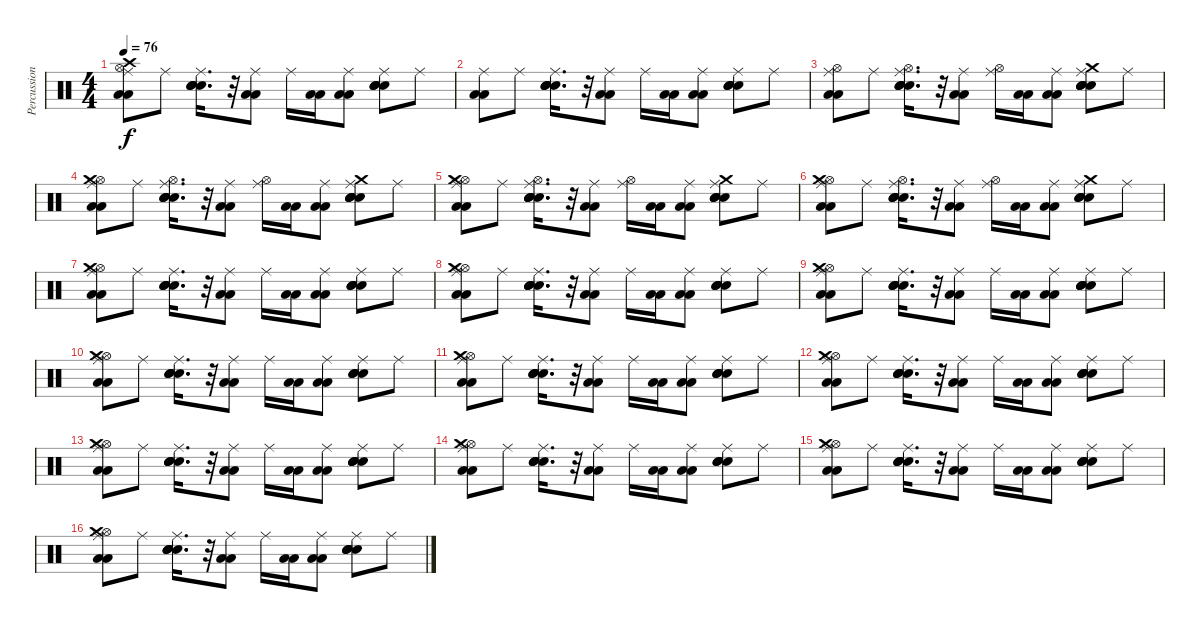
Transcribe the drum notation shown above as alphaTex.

\track ("Percussion" "Percussion") {instrument percussion}
\staff {score}
\articulation defaults
\ts (4 4)
\tempo 76
\clef neutral
\ks c
("Hi-Hat (open)" "Low Floor Tom (hit)" "Low Floor Tom (hit)" "Ride (middle)" "Crash high (hit)").8{dy f volume 8} "Ride (middle)".8 ("Electric Snare (hit)" "Electric Snare (hit)" "Snare (hit) 2" "Ride (middle)" "Snare (hit) 2").16{d} r.32 ("Low Floor Tom (hit)" "Low Floor Tom (hit)" "Ride (middle)").8 "Ride (middle)".16 ("Low Floor Tom (hit)" "Low Floor Tom (hit)").16 ("Low Floor Tom (hit)" "Low Floor Tom (hit)" "Ride (middle)").8 ("Electric Snare (hit)" "Electric Snare (hit)" "Snare (hit) 2" "Ride (middle)" "Snare (hit) 2").8 "Ride (middle)".8 |
("Low Floor Tom (hit)" "Low Floor Tom (hit)" "Ride (middle)").8 "Ride (middle)".8 ("Electric Snare (hit)" "Electric Snare (hit)" "Snare (hit) 2" "Ride (middle)" "Snare (hit) 2").16{d} r.32 ("Low Floor Tom (hit)" "Low Floor Tom (hit)" "Ride (middle)").8 "Ride (middle)".16 ("Low Floor Tom (hit)" "Low Floor Tom (hit)").16 ("Low Floor Tom (hit)" "Low Floor Tom (hit)" "Ride (middle)").8 ("Electric Snare (hit)" "Electric Snare (hit)" "Snare (hit) 2" "Ride (middle)" "Snare (hit) 2").8 "Ride (middle)".8 |
("Hi-Hat (open)" "Low Floor Tom (hit)" "Low Floor Tom (hit)" "Ride (middle)").8 "Ride (middle)".8 ("Electric Snare (hit)" "Electric Snare (hit)" "Snare (hit) 2" "Ride (middle)" "Snare (hit) 2" "Hi-Hat (open)").16{d} r.32 ("Low Floor Tom (hit)" "Low Floor Tom (hit)" "Ride (middle)").8 ("Hi-Hat (open)" "Ride (middle)").16 ("Low Floor Tom (hit)" "Low Floor Tom (hit)").16 ("Low Floor Tom (hit)" "Low Floor Tom (hit)" "Ride (middle)").8 ("Electric Snare (hit)" "Electric Snare (hit)" "Snare (hit) 2" "Ride (middle)" "Snare (hit) 2" "Crash medium (hit)").8 "Ride (middle)".8 |
("Hi-Hat (open)" "Low Floor Tom (hit)" "Low Floor Tom (hit)" "Ride (middle)" "Crash medium (hit)").8 "Ride (middle)".8 ("Electric Snare (hit)" "Electric Snare (hit)" "Snare (hit) 2" "Ride (middle)" "Snare (hit) 2" "Hi-Hat (open)").16{d} r.32 ("Low Floor Tom (hit)" "Low Floor Tom (hit)" "Ride (middle)").8 ("Hi-Hat (open)" "Ride (middle)").16 ("Low Floor Tom (hit)" "Low Floor Tom (hit)").16 ("Low Floor Tom (hit)" "Low Floor Tom (hit)" "Ride (middle)").8 ("Electric Snare (hit)" "Electric Snare (hit)" "Snare (hit) 2" "Ride (middle)" "Snare (hit) 2" "Crash medium (hit)").8 "Ride (middle)".8 |
("Hi-Hat (open)" "Low Floor Tom (hit)" "Low Floor Tom (hit)" "Ride (middle)" "Crash medium (hit)").8 "Ride (middle)".8 ("Electric Snare (hit)" "Electric Snare (hit)" "Snare (hit) 2" "Ride (middle)" "Snare (hit) 2" "Hi-Hat (open)").16{d} r.32 ("Low Floor Tom (hit)" "Low Floor Tom (hit)" "Ride (middle)").8 ("Hi-Hat (open)" "Ride (middle)").16 ("Low Floor Tom (hit)" "Low Floor Tom (hit)").16 ("Low Floor Tom (hit)" "Low Floor Tom (hit)" "Ride (middle)").8 ("Electric Snare (hit)" "Electric Snare (hit)" "Snare (hit) 2" "Ride (middle)" "Snare (hit) 2" "Crash medium (hit)").8 "Ride (middle)".8 |
("Hi-Hat (open)" "Low Floor Tom (hit)" "Low Floor Tom (hit)" "Ride (middle)" "Crash medium (hit)").8 "Ride (middle)".8 ("Electric Snare (hit)" "Electric Snare (hit)" "Snare (hit) 2" "Ride (middle)" "Snare (hit) 2" "Hi-Hat (open)").16{d} r.32 ("Low Floor Tom (hit)" "Low Floor Tom (hit)" "Ride (middle)").8 ("Hi-Hat (open)" "Ride (middle)").16 ("Low Floor Tom (hit)" "Low Floor Tom (hit)").16 ("Low Floor Tom (hit)" "Low Floor Tom (hit)" "Ride (middle)").8 ("Electric Snare (hit)" "Electric Snare (hit)" "Snare (hit) 2" "Ride (middle)" "Snare (hit) 2" "Crash medium (hit)").8 "Ride (middle)".8 |
("Hi-Hat (open)" "Low Floor Tom (hit)" "Low Floor Tom (hit)" "Ride (middle)" "Crash medium (hit)").8 "Ride (middle)".8 ("Electric Snare (hit)" "Electric Snare (hit)" "Snare (hit) 2" "Ride (middle)" "Snare (hit) 2").16{d} r.32 ("Low Floor Tom (hit)" "Low Floor Tom (hit)" "Ride (middle)").8 "Ride (middle)".16 ("Low Floor Tom (hit)" "Low Floor Tom (hit)").16 ("Low Floor Tom (hit)" "Low Floor Tom (hit)" "Ride (middle)").8 ("Electric Snare (hit)" "Electric Snare (hit)" "Snare (hit) 2" "Ride (middle)" "Snare (hit) 2").8 "Ride (middle)".8 |
("Hi-Hat (open)" "Low Floor Tom (hit)" "Low Floor Tom (hit)" "Ride (middle)" "Crash medium (hit)").8 "Ride (middle)".8 ("Electric Snare (hit)" "Electric Snare (hit)" "Snare (hit) 2" "Ride (middle)" "Snare (hit) 2").16{d} r.32 ("Low Floor Tom (hit)" "Low Floor Tom (hit)" "Ride (middle)").8 "Ride (middle)".16 ("Low Floor Tom (hit)" "Low Floor Tom (hit)").16 ("Low Floor Tom (hit)" "Low Floor Tom (hit)" "Ride (middle)").8 ("Electric Snare (hit)" "Electric Snare (hit)" "Snare (hit) 2" "Ride (middle)" "Snare (hit) 2").8 "Ride (middle)".8 |
("Hi-Hat (open)" "Low Floor Tom (hit)" "Low Floor Tom (hit)" "Ride (middle)" "Crash medium (hit)").8 "Ride (middle)".8 ("Electric Snare (hit)" "Electric Snare (hit)" "Snare (hit) 2" "Ride (middle)" "Snare (hit) 2").16{d} r.32 ("Low Floor Tom (hit)" "Low Floor Tom (hit)" "Ride (middle)").8 "Ride (middle)".16 ("Low Floor Tom (hit)" "Low Floor Tom (hit)").16 ("Low Floor Tom (hit)" "Low Floor Tom (hit)" "Ride (middle)").8 ("Electric Snare (hit)" "Electric Snare (hit)" "Snare (hit) 2" "Ride (middle)" "Snare (hit) 2").8 "Ride (middle)".8 |
("Hi-Hat (open)" "Low Floor Tom (hit)" "Low Floor Tom (hit)" "Ride (middle)" "Crash medium (hit)").8 "Ride (middle)".8 ("Electric Snare (hit)" "Electric Snare (hit)" "Snare (hit) 2" "Ride (middle)" "Snare (hit) 2").16{d} r.32 ("Low Floor Tom (hit)" "Low Floor Tom (hit)" "Ride (middle)").8 "Ride (middle)".16 ("Low Floor Tom (hit)" "Low Floor Tom (hit)").16 ("Low Floor Tom (hit)" "Low Floor Tom (hit)" "Ride (middle)").8 ("Electric Snare (hit)" "Electric Snare (hit)" "Snare (hit) 2" "Ride (middle)" "Snare (hit) 2").8 "Ride (middle)".8 |
("Hi-Hat (open)" "Low Floor Tom (hit)" "Low Floor Tom (hit)" "Ride (middle)" "Crash medium (hit)").8 "Ride (middle)".8 ("Electric Snare (hit)" "Electric Snare (hit)" "Snare (hit) 2" "Ride (middle)" "Snare (hit) 2").16{d} r.32 ("Low Floor Tom (hit)" "Low Floor Tom (hit)" "Ride (middle)").8 "Ride (middle)".16 ("Low Floor Tom (hit)" "Low Floor Tom (hit)").16 ("Low Floor Tom (hit)" "Low Floor Tom (hit)" "Ride (middle)").8 ("Electric Snare (hit)" "Electric Snare (hit)" "Snare (hit) 2" "Ride (middle)" "Snare (hit) 2").8 "Ride (middle)".8 |
("Hi-Hat (open)" "Low Floor Tom (hit)" "Low Floor Tom (hit)" "Ride (middle)" "Crash medium (hit)").8 "Ride (middle)".8 ("Electric Snare (hit)" "Electric Snare (hit)" "Snare (hit) 2" "Ride (middle)" "Snare (hit) 2").16{d} r.32 ("Low Floor Tom (hit)" "Low Floor Tom (hit)" "Ride (middle)").8 "Ride (middle)".16 ("Low Floor Tom (hit)" "Low Floor Tom (hit)").16 ("Low Floor Tom (hit)" "Low Floor Tom (hit)" "Ride (middle)").8 ("Electric Snare (hit)" "Electric Snare (hit)" "Snare (hit) 2" "Ride (middle)" "Snare (hit) 2").8 "Ride (middle)".8 |
("Hi-Hat (open)" "Low Floor Tom (hit)" "Low Floor Tom (hit)" "Ride (middle)" "Crash medium (hit)").8 "Ride (middle)".8 ("Electric Snare (hit)" "Electric Snare (hit)" "Snare (hit) 2" "Ride (middle)" "Snare (hit) 2").16{d} r.32 ("Low Floor Tom (hit)" "Low Floor Tom (hit)" "Ride (middle)").8 "Ride (middle)".16 ("Low Floor Tom (hit)" "Low Floor Tom (hit)").16 ("Low Floor Tom (hit)" "Low Floor Tom (hit)" "Ride (middle)").8 ("Electric Snare (hit)" "Electric Snare (hit)" "Snare (hit) 2" "Ride (middle)" "Snare (hit) 2").8 "Ride (middle)".8 |
("Hi-Hat (open)" "Low Floor Tom (hit)" "Low Floor Tom (hit)" "Ride (middle)" "Crash medium (hit)").8 "Ride (middle)".8 ("Electric Snare (hit)" "Electric Snare (hit)" "Snare (hit) 2" "Ride (middle)" "Snare (hit) 2").16{d} r.32 ("Low Floor Tom (hit)" "Low Floor Tom (hit)" "Ride (middle)").8 "Ride (middle)".16 ("Low Floor Tom (hit)" "Low Floor Tom (hit)").16 ("Low Floor Tom (hit)" "Low Floor Tom (hit)" "Ride (middle)").8 ("Electric Snare (hit)" "Electric Snare (hit)" "Snare (hit) 2" "Ride (middle)" "Snare (hit) 2").8 "Ride (middle)".8 |
("Hi-Hat (open)" "Low Floor Tom (hit)" "Low Floor Tom (hit)" "Ride (middle)" "Crash medium (hit)").8 "Ride (middle)".8 ("Electric Snare (hit)" "Electric Snare (hit)" "Snare (hit) 2" "Ride (middle)" "Snare (hit) 2").16{d} r.32 ("Low Floor Tom (hit)" "Low Floor Tom (hit)" "Ride (middle)").8 "Ride (middle)".16 ("Low Floor Tom (hit)" "Low Floor Tom (hit)").16 ("Low Floor Tom (hit)" "Low Floor Tom (hit)" "Ride (middle)").8 ("Electric Snare (hit)" "Electric Snare (hit)" "Snare (hit) 2" "Ride (middle)" "Snare (hit) 2").8 "Ride (middle)".8 |
("Hi-Hat (open)" "Low Floor Tom (hit)" "Low Floor Tom (hit)" "Ride (middle)" "Crash medium (hit)").8 "Ride (middle)".8 ("Electric Snare (hit)" "Electric Snare (hit)" "Snare (hit) 2" "Ride (middle)" "Snare (hit) 2").16{d} r.32 ("Low Floor Tom (hit)" "Low Floor Tom (hit)" "Ride (middle)").8 "Ride (middle)".16 ("Low Floor Tom (hit)" "Low Floor Tom (hit)").16 ("Low Floor Tom (hit)" "Low Floor Tom (hit)" "Ride (middle)").8 ("Electric Snare (hit)" "Electric Snare (hit)" "Snare (hit) 2" "Ride (middle)" "Snare (hit) 2").8 "Ride (middle)".8
